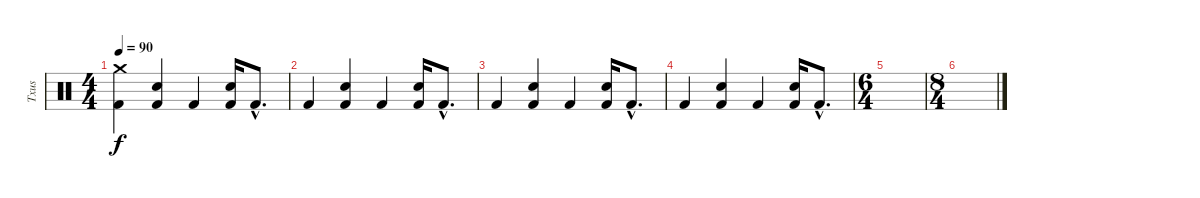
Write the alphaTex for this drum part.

\track ("Txus" "Txus") {instrument percussion}
\staff {score}
\articulation defaults
\ts (4 4)
\tempo 90
\clef neutral
\ks c
("Kick (hit) 2" "Crash medium (hit)").4{dy f volume 0} ("Kick (hit) 2" "Electric Snare (hit)").4 "Kick (hit) 2".4 ("Kick (hit) 2" "Electric Snare (hit)").16 "Kick (hit) 2"{hac}.8{d} |
"Kick (hit) 2".4 ("Kick (hit) 2" "Electric Snare (hit)").4 "Kick (hit) 2".4 ("Kick (hit) 2" "Electric Snare (hit)").16 "Kick (hit) 2"{hac}.8{d} |
"Kick (hit) 2".4 ("Kick (hit) 2" "Electric Snare (hit)").4 "Kick (hit) 2".4 ("Kick (hit) 2" "Electric Snare (hit)").16 "Kick (hit) 2"{hac}.8{d} |
"Kick (hit) 2".4 ("Kick (hit) 2" "Electric Snare (hit)").4 "Kick (hit) 2".4 ("Kick (hit) 2" "Electric Snare (hit)").16 "Kick (hit) 2"{hac}.8{d} |
\ts (6 4)
|
\ts (8 4)
